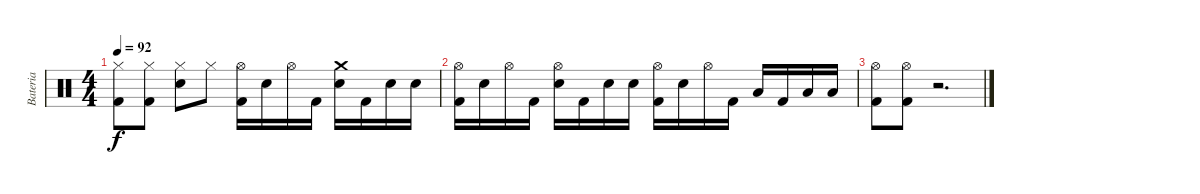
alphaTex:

\track ("Bateria" "Bateria") {instrument percussion}
\staff {score}
\articulation defaults
\ts (4 4)
\tempo 92
\clef neutral
\ks c
("Hi-Hat (closed)" "Kick (hit) 2").8{dy f} ("Hi-Hat (closed)" "Kick (hit) 2").8 ("Electric Snare (hit)" "Hi-Hat (closed)").8 "Hi-Hat (closed)".8 ("Hi-Hat (open)" "Kick (hit) 2").16 "Electric Snare (hit)".16 "Hi-Hat (open)".16 "Kick (hit) 2".16 ("Crash medium (hit)" "Electric Snare (hit)").16 "Kick (hit) 2".16 "Electric Snare (hit)".16 "Electric Snare (hit)".16 |
("Hi-Hat (open)" "Kick (hit) 2").16 "Electric Snare (hit)".16 "Hi-Hat (open)".16 "Kick (hit) 2".16 ("Electric Snare (hit)" "Hi-Hat (open)").16 "Kick (hit) 2".16 "Electric Snare (hit)".16 "Electric Snare (hit)".16 ("Hi-Hat (open)" "Kick (hit) 2").16 "Electric Snare (hit)".16 "Hi-Hat (open)".16 "Kick (hit) 2".16 "Low Tom (hit)".16 "Kick (hit) 2".16 "Low Floor Tom (hit)".16 "Low Floor Tom (hit)".16 |
("Hi-Hat (open)" "Kick (hit) 2").8 ("Hi-Hat (open)" "Kick (hit) 2").8 r.2{d}
